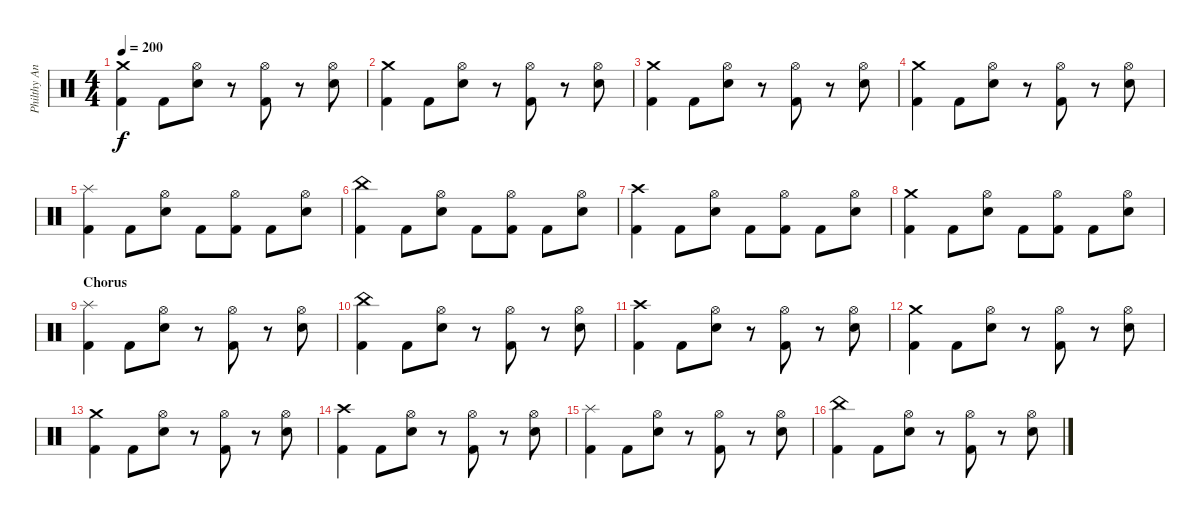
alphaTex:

\track ("Philthy Animal Taylor" "Philthy An") {instrument percussion}
\staff {score}
\articulation defaults
\ts (4 4)
\tempo 200
\clef neutral
\ks c
("Crash medium (hit)" "Kick (hit) 2").4{dy f} "Kick (hit) 2".8 ("Hi-Hat (open)" "Snare (hit) 2").8 r.8 ("Hi-Hat (open)" "Kick (hit) 2").8 r.8 ("Hi-Hat (open)" "Snare (hit) 2").8 |
("Crash medium (hit)" "Kick (hit) 2").4 "Kick (hit) 2".8 ("Hi-Hat (open)" "Snare (hit) 2").8 r.8 ("Hi-Hat (open)" "Kick (hit) 2").8 r.8 ("Hi-Hat (open)" "Snare (hit) 2").8 |
("Crash medium (hit)" "Kick (hit) 2").4 "Kick (hit) 2".8 ("Hi-Hat (open)" "Snare (hit) 2").8 r.8 ("Hi-Hat (open)" "Kick (hit) 2").8 r.8 ("Hi-Hat (open)" "Snare (hit) 2").8 |
("Crash medium (hit)" "Kick (hit) 2").4 "Kick (hit) 2".8 ("Hi-Hat (open)" "Snare (hit) 2").8 r.8 ("Hi-Hat (open)" "Kick (hit) 2").8 r.8 ("Hi-Hat (open)" "Snare (hit) 2").8 |
("Splash (hit)" "Kick (hit) 2").4 "Kick (hit) 2".8 ("Hi-Hat (open)" "Snare (hit) 2").8 "Kick (hit) 2".8 ("Hi-Hat (open)" "Kick (hit) 2").8 "Kick (hit) 2".8 ("Hi-Hat (open)" "Snare (hit) 2").8 |
("China (hit)" "Kick (hit) 2").4 "Kick (hit) 2".8 ("Hi-Hat (open)" "Snare (hit) 2").8 "Kick (hit) 2".8 ("Hi-Hat (open)" "Kick (hit) 2").8 "Kick (hit) 2".8 ("Hi-Hat (open)" "Snare (hit) 2").8 |
("Crash high (hit)" "Kick (hit) 2").4 "Kick (hit) 2".8 ("Hi-Hat (open)" "Snare (hit) 2").8 "Kick (hit) 2".8 ("Hi-Hat (open)" "Kick (hit) 2").8 "Kick (hit) 2".8 ("Hi-Hat (open)" "Snare (hit) 2").8 |
("Crash medium (hit)" "Kick (hit) 2").4 "Kick (hit) 2".8 ("Hi-Hat (open)" "Snare (hit) 2").8 "Kick (hit) 2".8 ("Hi-Hat (open)" "Kick (hit) 2").8 "Kick (hit) 2".8 ("Hi-Hat (open)" "Snare (hit) 2").8 |
\section ("" "Chorus")
("Splash (hit)" "Kick (hit) 2").4 "Kick (hit) 2".8 ("Hi-Hat (open)" "Snare (hit) 2").8 r.8 ("Hi-Hat (open)" "Kick (hit) 2").8 r.8 ("Hi-Hat (open)" "Snare (hit) 2").8 |
("China (hit)" "Kick (hit) 2").4 "Kick (hit) 2".8 ("Hi-Hat (open)" "Snare (hit) 2").8 r.8 ("Hi-Hat (open)" "Kick (hit) 2").8 r.8 ("Hi-Hat (open)" "Snare (hit) 2").8 |
("Crash high (hit)" "Kick (hit) 2").4 "Kick (hit) 2".8 ("Hi-Hat (open)" "Snare (hit) 2").8 r.8 ("Hi-Hat (open)" "Kick (hit) 2").8 r.8 ("Hi-Hat (open)" "Snare (hit) 2").8 |
("Crash medium (hit)" "Kick (hit) 2").4 "Kick (hit) 2".8 ("Hi-Hat (open)" "Snare (hit) 2").8 r.8 ("Hi-Hat (open)" "Kick (hit) 2").8 r.8 ("Hi-Hat (open)" "Snare (hit) 2").8 |
("Crash medium (hit)" "Kick (hit) 2").4 "Kick (hit) 2".8 ("Hi-Hat (open)" "Snare (hit) 2").8 r.8 ("Hi-Hat (open)" "Kick (hit) 2").8 r.8 ("Hi-Hat (open)" "Snare (hit) 2").8 |
("Crash high (hit)" "Kick (hit) 2").4 "Kick (hit) 2".8 ("Hi-Hat (open)" "Snare (hit) 2").8 r.8 ("Hi-Hat (open)" "Kick (hit) 2").8 r.8 ("Hi-Hat (open)" "Snare (hit) 2").8 |
("Splash (hit)" "Kick (hit) 2").4 "Kick (hit) 2".8 ("Hi-Hat (open)" "Snare (hit) 2").8 r.8 ("Hi-Hat (open)" "Kick (hit) 2").8 r.8 ("Hi-Hat (open)" "Snare (hit) 2").8 |
("China (hit)" "Kick (hit) 2").4 "Kick (hit) 2".8 ("Hi-Hat (open)" "Snare (hit) 2").8 r.8 ("Hi-Hat (open)" "Kick (hit) 2").8 r.8 ("Hi-Hat (open)" "Snare (hit) 2").8
